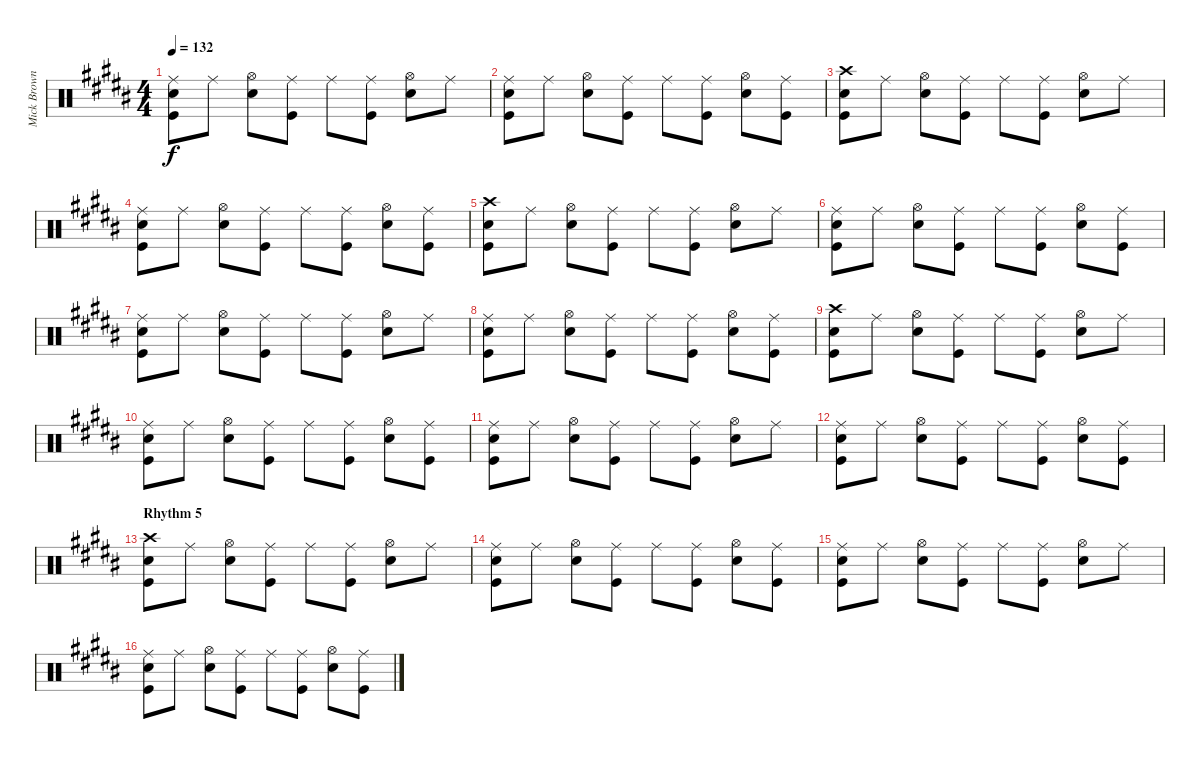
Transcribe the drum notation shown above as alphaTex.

\track ("Mick Brown" "Mick Brown") {instrument percussion}
\staff {score}
\articulation defaults
\ts (4 4)
\tempo 132
\clef neutral
\ks g#minor
("Kick (hit)" "Snare (hit) 2" "Ride (middle)").8{dy f} "Ride (middle)".8 ("Hi-Hat (open)" "Snare (hit) 2").8 ("Kick (hit)" "Ride (middle)").8 "Ride (middle)".8 ("Ride (middle)" "Kick (hit)").8 ("Snare (hit) 2" "Hi-Hat (open)").8 "Ride (middle)".8 |
("Kick (hit)" "Snare (hit) 2" "Ride (middle)").8 "Ride (middle)".8 ("Snare (hit) 2" "Hi-Hat (open)").8 ("Ride (middle)" "Kick (hit)").8 "Ride (middle)".8 ("Kick (hit)" "Ride (middle)").8 ("Hi-Hat (open)" "Snare (hit) 2").8 ("Ride (middle)" "Kick (hit)").8 |
("Kick (hit)" "Snare (hit) 2" "Crash high (hit)").8 "Ride (middle)".8 ("Hi-Hat (open)" "Snare (hit) 2").8 ("Kick (hit)" "Ride (middle)").8 "Ride (middle)".8 ("Kick (hit)" "Ride (middle)").8 ("Snare (hit) 2" "Hi-Hat (open)").8 "Ride (middle)".8 |
("Kick (hit)" "Snare (hit) 2" "Ride (middle)").8 "Ride (middle)".8 ("Snare (hit) 2" "Hi-Hat (open)").8 ("Ride (middle)" "Kick (hit)").8 "Ride (middle)".8 ("Kick (hit)" "Ride (middle)").8 ("Hi-Hat (open)" "Snare (hit) 2").8 ("Ride (middle)" "Kick (hit)").8 |
("Snare (hit) 2" "Kick (hit)" "Crash high (hit)").8 "Ride (middle)".8 ("Hi-Hat (open)" "Snare (hit) 2").8 ("Kick (hit)" "Ride (middle)").8 "Ride (middle)".8 ("Kick (hit)" "Ride (middle)").8 ("Hi-Hat (open)" "Snare (hit) 2").8 "Ride (middle)".8 |
("Ride (middle)" "Kick (hit)" "Snare (hit) 2").8 "Ride (middle)".8 ("Snare (hit) 2" "Hi-Hat (open)").8 ("Ride (middle)" "Kick (hit)").8 "Ride (middle)".8 ("Kick (hit)" "Ride (middle)").8 ("Hi-Hat (open)" "Snare (hit) 2").8 ("Ride (middle)" "Kick (hit)").8 |
("Snare (hit) 2" "Kick (hit)" "Ride (middle)").8 "Ride (middle)".8 ("Hi-Hat (open)" "Snare (hit) 2").8 ("Kick (hit)" "Ride (middle)").8 "Ride (middle)".8 ("Kick (hit)" "Ride (middle)").8 ("Hi-Hat (open)" "Snare (hit) 2").8 "Ride (middle)".8 |
("Kick (hit)" "Snare (hit) 2" "Ride (middle)").8 "Ride (middle)".8 ("Hi-Hat (open)" "Snare (hit) 2").8 ("Kick (hit)" "Ride (middle)").8 "Ride (middle)".8 ("Ride (middle)" "Kick (hit)").8 ("Snare (hit) 2" "Hi-Hat (open)").8 ("Kick (hit)" "Ride (middle)").8 |
("Snare (hit) 2" "Crash high (hit)" "Kick (hit)").8 "Ride (middle)".8 ("Snare (hit) 2" "Hi-Hat (open)").8 ("Ride (middle)" "Kick (hit)").8 "Ride (middle)".8 ("Kick (hit)" "Ride (middle)").8 ("Hi-Hat (open)" "Snare (hit) 2").8 "Ride (middle)".8 |
("Snare (hit) 2" "Kick (hit)" "Ride (middle)").8 "Ride (middle)".8 ("Snare (hit) 2" "Hi-Hat (open)").8 ("Ride (middle)" "Kick (hit)").8 "Ride (middle)".8 ("Ride (middle)" "Kick (hit)").8 ("Snare (hit) 2" "Hi-Hat (open)").8 ("Ride (middle)" "Kick (hit)").8 |
("Snare (hit) 2" "Ride (middle)" "Kick (hit)").8 "Ride (middle)".8 ("Snare (hit) 2" "Hi-Hat (open)").8 ("Ride (middle)" "Kick (hit)").8 "Ride (middle)".8 ("Ride (middle)" "Kick (hit)").8 ("Snare (hit) 2" "Hi-Hat (open)").8 "Ride (middle)".8 |
("Snare (hit) 2" "Ride (middle)" "Kick (hit)").8 "Ride (middle)".8 ("Snare (hit) 2" "Hi-Hat (open)").8 ("Ride (middle)" "Kick (hit)").8 "Ride (middle)".8 ("Kick (hit)" "Ride (middle)").8 ("Hi-Hat (open)" "Snare (hit) 2").8 ("Ride (middle)" "Kick (hit)").8 |
\section ("" "Rhythm 5")
("Snare (hit) 2" "Crash high (hit)" "Kick (hit)").8 "Ride (middle)".8 ("Snare (hit) 2" "Hi-Hat (open)").8 ("Ride (middle)" "Kick (hit)").8 "Ride (middle)".8 ("Ride (middle)" "Kick (hit)").8 ("Snare (hit) 2" "Hi-Hat (open)").8 "Ride (middle)".8 |
("Snare (hit) 2" "Ride (middle)" "Kick (hit)").8 "Ride (middle)".8 ("Snare (hit) 2" "Hi-Hat (open)").8 ("Ride (middle)" "Kick (hit)").8 "Ride (middle)".8 ("Kick (hit)" "Ride (middle)").8 ("Hi-Hat (open)" "Snare (hit) 2").8 ("Ride (middle)" "Kick (hit)").8 |
("Snare (hit) 2" "Ride (middle)" "Kick (hit)").8 "Ride (middle)".8 ("Snare (hit) 2" "Hi-Hat (open)").8 ("Ride (middle)" "Kick (hit)").8 "Ride (middle)".8 ("Ride (middle)" "Kick (hit)").8 ("Snare (hit) 2" "Hi-Hat (open)").8 "Ride (middle)".8 |
("Snare (hit) 2" "Ride (middle)" "Kick (hit)").8 "Ride (middle)".8 ("Snare (hit) 2" "Hi-Hat (open)").8 ("Ride (middle)" "Kick (hit)").8 "Ride (middle)".8 ("Kick (hit)" "Ride (middle)").8 ("Hi-Hat (open)" "Snare (hit) 2").8 ("Ride (middle)" "Kick (hit)").8
